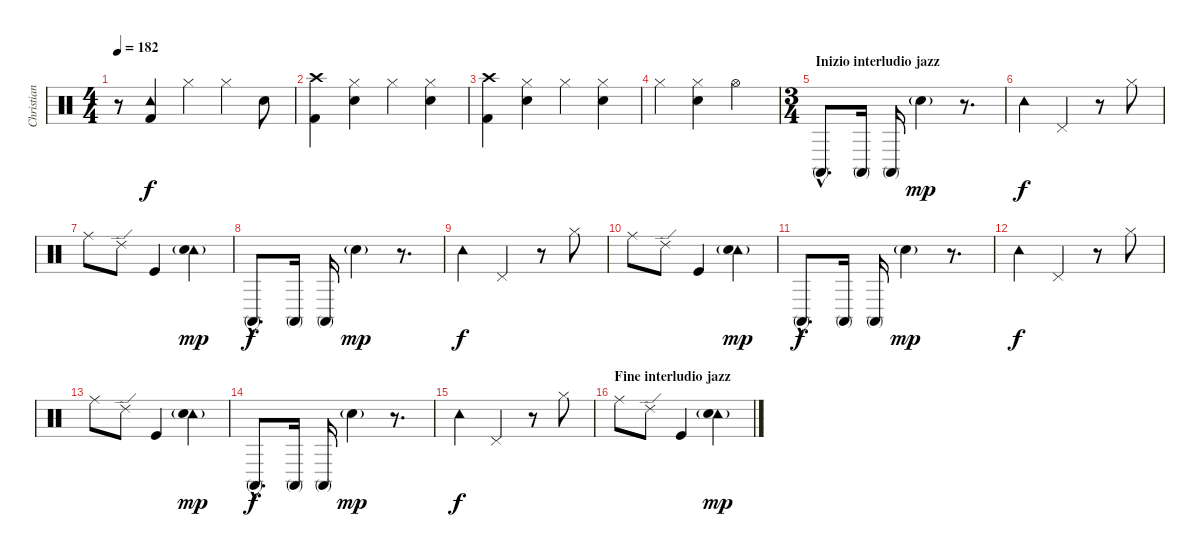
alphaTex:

\track ("Christian Meyer" "Christian ") {instrument percussion}
\staff {score}
\articulation defaults
\ts (4 4)
\tempo 182
\clef neutral
\ks c
r.8{dy f} ("Tambourine (hit)" "Kick (hit) 2").4 "Hi-Hat (closed)".4 "Hi-Hat (closed)".4 "Electric Snare (hit)".8 |
("Crash high (hit)" "Kick (hit) 2").4 ("Hi-Hat (closed)" "Electric Snare (hit)").4 "Hi-Hat (closed)".4 ("Hi-Hat (closed)" "Electric Snare (hit)").4 |
("Crash high (hit)" "Kick (hit) 2").4 ("Hi-Hat (closed)" "Electric Snare (hit)").4 "Hi-Hat (closed)".4 ("Hi-Hat (closed)" "Electric Snare (hit)").4 |
"Hi-Hat (closed)".4 ("Hi-Hat (closed)" "Electric Snare (hit)").4 "Hi-Hat (open)".2 |
\ts (3 4)
\section ("" "Inizio interludio jazz")
"Conga high (mute)"{hac}.8{d volume 12} "Conga high (mute)".16 "Conga high (mute)".16 "Electric Snare (hit)"{g}.4{dy mp} r.8{d} |
"Tambourine (hit)".4{dy f} "Pedal Hi-Hat (hit)".4 r.8 "Hi-Hat (closed)".8 |
"Ride (middle)".8 "Ride (edge) 2".8 "Kick (hit)".4 ("Tambourine (hit)" "Electric Snare (hit)"{g}).4{dy mp} |
"Conga high (mute)"{hac}.8{d dy f} "Conga high (mute)".16 "Conga high (mute)".16 "Electric Snare (hit)"{g}.4{dy mp} r.8{d} |
"Tambourine (hit)".4{dy f} "Pedal Hi-Hat (hit)".4 r.8 "Hi-Hat (closed)".8 |
"Ride (middle)".8 "Ride (edge) 2".8 "Kick (hit)".4 ("Tambourine (hit)" "Electric Snare (hit)"{g}).4{dy mp} |
"Conga high (mute)"{hac}.8{d dy f} "Conga high (mute)".16 "Conga high (mute)".16 "Electric Snare (hit)"{g}.4{dy mp} r.8{d} |
"Tambourine (hit)".4{dy f} "Pedal Hi-Hat (hit)".4 r.8 "Hi-Hat (closed)".8 |
"Ride (middle)".8 "Ride (edge) 2".8 "Kick (hit)".4 ("Tambourine (hit)" "Electric Snare (hit)"{g}).4{dy mp} |
"Conga high (mute)"{hac}.8{d dy f} "Conga high (mute)".16 "Conga high (mute)".16 "Electric Snare (hit)"{g}.4{dy mp} r.8{d} |
"Tambourine (hit)".4{dy f} "Pedal Hi-Hat (hit)".4 r.8 "Hi-Hat (closed)".8 |
\section ("" "Fine interludio jazz")
"Ride (middle)".8 "Ride (edge) 2".8 "Kick (hit)".4 ("Tambourine (hit)" "Electric Snare (hit)"{g}).4{dy mp}
